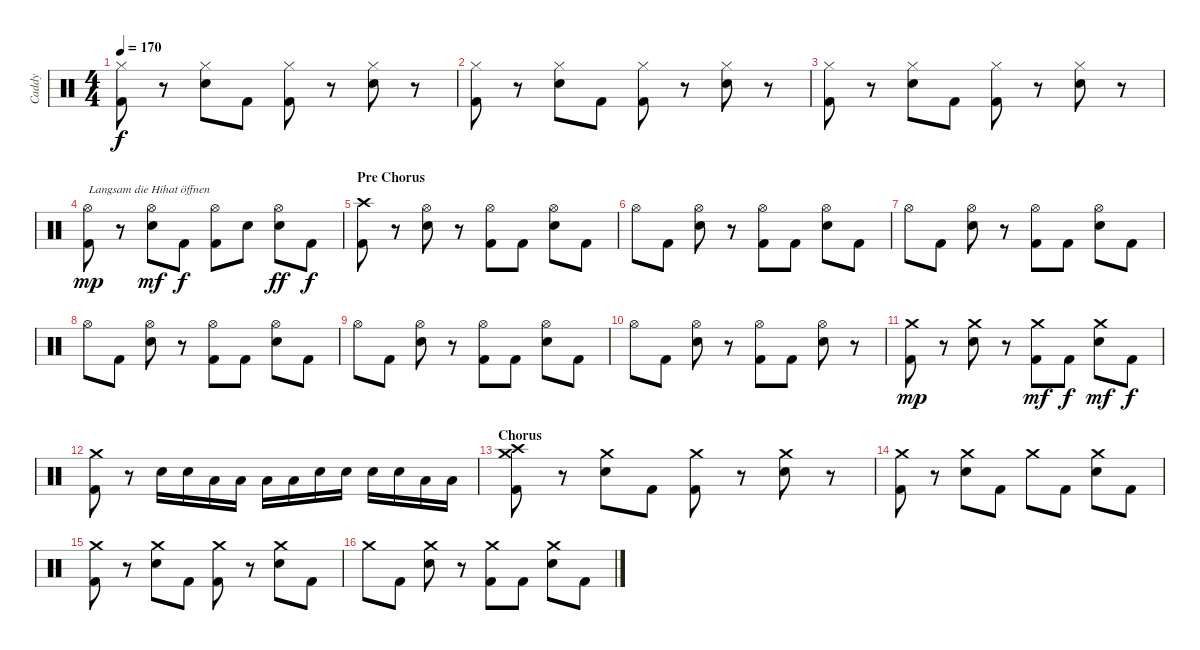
\track ("Caddy" "Caddy") {instrument percussion}
\staff {score}
\articulation defaults
\ts (4 4)
\tempo 170
\clef neutral
\ks c
("Hi-Hat (closed)" "Kick (hit) 2").8{dy f} r.8 ("Hi-Hat (closed)" "Electric Snare (hit)").8 "Kick (hit) 2".8 ("Hi-Hat (closed)" "Kick (hit) 2").8 r.8 ("Hi-Hat (closed)" "Electric Snare (hit)").8 r.8 |
("Hi-Hat (closed)" "Kick (hit) 2").8 r.8 ("Hi-Hat (closed)" "Electric Snare (hit)").8 "Kick (hit) 2".8 ("Hi-Hat (closed)" "Kick (hit) 2").8 r.8 ("Hi-Hat (closed)" "Electric Snare (hit)").8 r.8 |
("Hi-Hat (closed)" "Kick (hit) 2").8 r.8 ("Hi-Hat (closed)" "Electric Snare (hit)").8 "Kick (hit) 2".8 ("Hi-Hat (closed)" "Kick (hit) 2").8 r.8 ("Hi-Hat (closed)" "Electric Snare (hit)").8 r.8 |
("Hi-Hat (open)" "Kick (hit) 2").8{txt "Langsam die Hihat öffnen" dy mp} r.8 ("Hi-Hat (open)" "Electric Snare (hit)").8{dy mf} "Kick (hit) 2".8{dy f} ("Hi-Hat (open)" "Kick (hit) 2").8 "Electric Snare (hit)".8 ("Hi-Hat (open)" "Electric Snare (hit)").8{dy ff} "Kick (hit) 2".8{dy f} |
\section ("" "Pre Chorus")
("Crash high (hit)" "Kick (hit) 2").8 r.8 ("Hi-Hat (open)" "Electric Snare (hit)").8 r.8 ("Hi-Hat (open)" "Kick (hit) 2").8 "Kick (hit) 2".8 ("Hi-Hat (open)" "Electric Snare (hit)").8 "Kick (hit) 2".8 |
"Hi-Hat (open)".8 "Kick (hit) 2".8 ("Hi-Hat (open)" "Electric Snare (hit)").8 r.8 ("Hi-Hat (open)" "Kick (hit) 2").8 "Kick (hit) 2".8 ("Hi-Hat (open)" "Electric Snare (hit)").8 "Kick (hit) 2".8 |
"Hi-Hat (open)".8 "Kick (hit) 2".8 ("Hi-Hat (open)" "Electric Snare (hit)").8 r.8 ("Hi-Hat (open)" "Kick (hit) 2").8 "Kick (hit) 2".8 ("Hi-Hat (open)" "Electric Snare (hit)").8 "Kick (hit) 2".8 |
"Hi-Hat (open)".8 "Kick (hit) 2".8 ("Hi-Hat (open)" "Electric Snare (hit)").8 r.8 ("Hi-Hat (open)" "Kick (hit) 2").8 "Kick (hit) 2".8 ("Hi-Hat (open)" "Electric Snare (hit)").8 "Kick (hit) 2".8 |
"Hi-Hat (open)".8 "Kick (hit) 2".8 ("Hi-Hat (open)" "Electric Snare (hit)").8 r.8 ("Hi-Hat (open)" "Kick (hit) 2").8 "Kick (hit) 2".8 ("Hi-Hat (open)" "Electric Snare (hit)").8 "Kick (hit) 2".8 |
"Hi-Hat (open)".8 "Kick (hit) 2".8 ("Hi-Hat (open)" "Electric Snare (hit)").8 r.8 ("Hi-Hat (open)" "Kick (hit) 2").8 "Kick (hit) 2".8 ("Hi-Hat (open)" "Electric Snare (hit)").8 r.8 |
("Crash medium (hit)" "Kick (hit) 2").8{dy mp} r.8 ("Crash medium (hit)" "Electric Snare (hit)").8 r.8 ("Crash medium (hit)" "Kick (hit) 2").8{dy mf} "Kick (hit) 2".8{dy f} ("Crash medium (hit)" "Electric Snare (hit)").8{dy mf} "Kick (hit) 2".8{dy f} |
("Crash medium (hit)" "Kick (hit) 2").8 r.8 "Electric Snare (hit)".16 "Electric Snare (hit)".16 "Low Tom (hit)".16 "Low Tom (hit)".16 "Low Tom (hit)".16 "Low Tom (hit)".16 "Electric Snare (hit)".16 "Electric Snare (hit)".16 "Electric Snare (hit)".16 "Electric Snare (hit)".16 "Low Floor Tom (hit)".16 "Low Floor Tom (hit)".16 |
\section ("" "Chorus")
("Crash medium (hit)" "Crash high (hit)" "Kick (hit) 2").8 r.8 ("Crash medium (hit)" "Electric Snare (hit)").8 "Kick (hit) 2".8 ("Crash medium (hit)" "Kick (hit) 2").8 r.8 ("Crash medium (hit)" "Electric Snare (hit)").8 r.8 |
("Crash medium (hit)" "Kick (hit) 2").8 r.8 ("Crash medium (hit)" "Electric Snare (hit)").8 "Kick (hit) 2".8 "Crash medium (hit)".8 "Kick (hit) 2".8 ("Crash medium (hit)" "Electric Snare (hit)").8 "Kick (hit) 2".8 |
("Crash medium (hit)" "Kick (hit) 2").8 r.8 ("Crash medium (hit)" "Electric Snare (hit)").8 "Kick (hit) 2".8 ("Crash medium (hit)" "Kick (hit) 2").8 r.8 ("Crash medium (hit)" "Electric Snare (hit)").8 "Kick (hit) 2".8 |
"Crash medium (hit)".8 "Kick (hit) 2".8 ("Crash medium (hit)" "Electric Snare (hit)").8 r.8 ("Crash medium (hit)" "Kick (hit) 2").8 "Kick (hit) 2".8 ("Crash medium (hit)" "Electric Snare (hit)").8 "Kick (hit) 2".8
